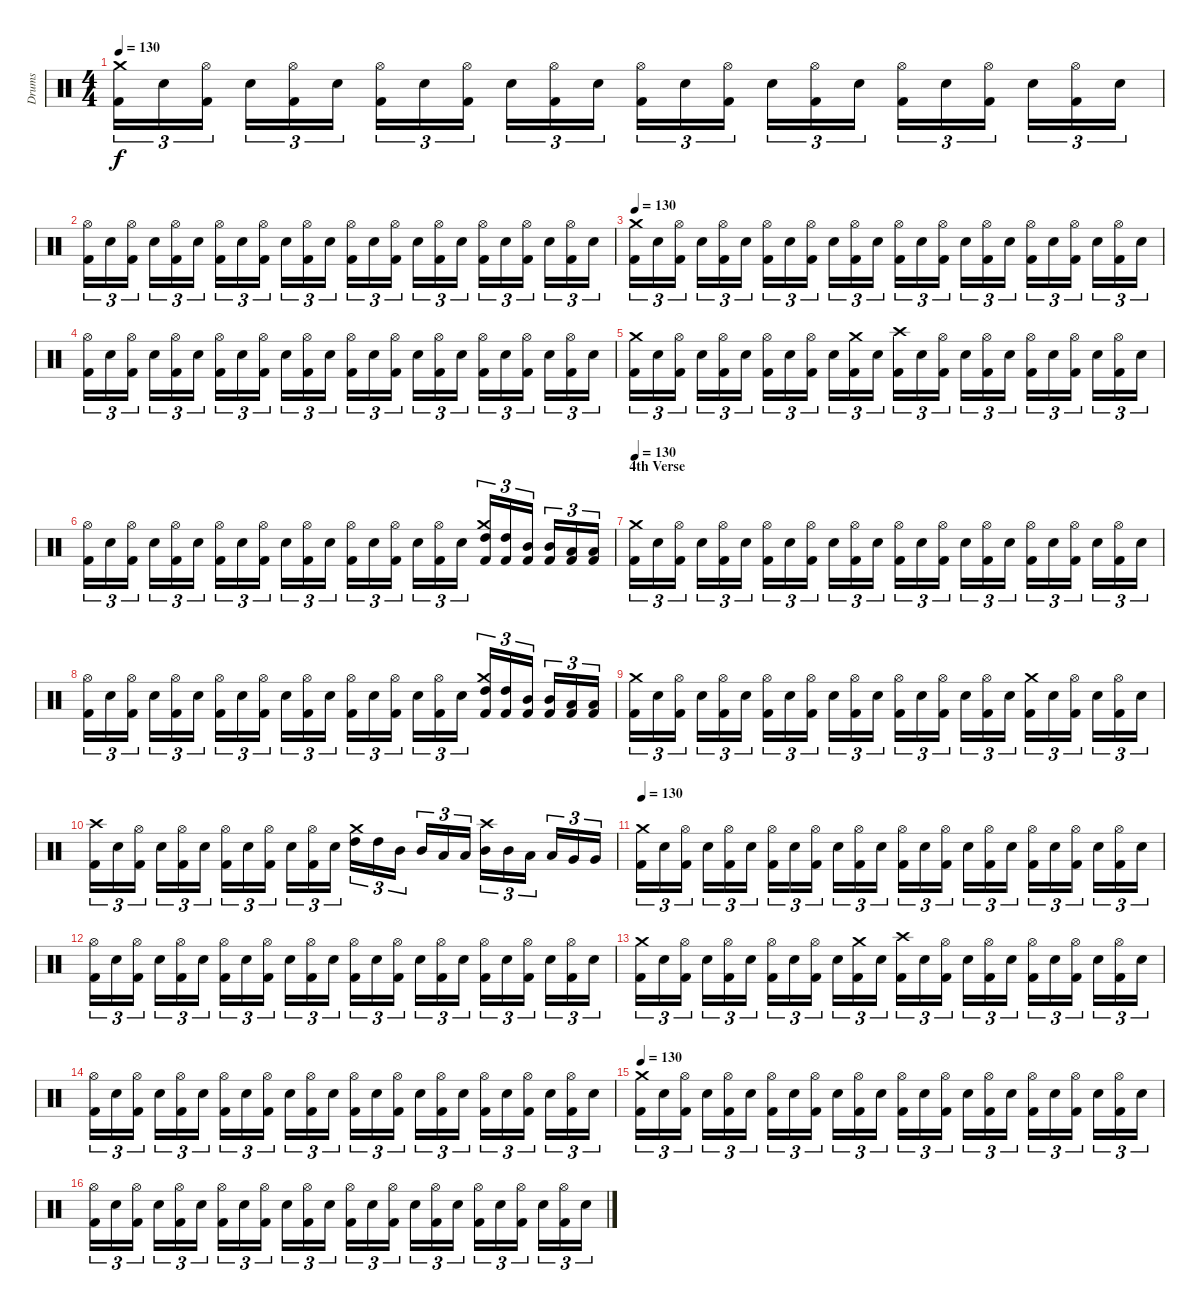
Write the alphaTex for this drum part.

\track ("Drums" "Drums") {instrument percussion}
\staff {score}
\articulation defaults
\ts (4 4)
\tempo 130
\clef neutral
\ks c
("Kick (hit) 2" "Crash medium (hit)").16{tu (3 2) dy f} "Electric Snare (hit)".16{tu (3 2)} ("Kick (hit) 2" "Hi-Hat (open)").16{tu (3 2)} "Electric Snare (hit)".16{tu (3 2)} ("Kick (hit) 2" "Hi-Hat (open)").16{tu (3 2)} "Electric Snare (hit)".16{tu (3 2)} ("Kick (hit) 2" "Hi-Hat (open)").16{tu (3 2)} "Electric Snare (hit)".16{tu (3 2)} ("Kick (hit) 2" "Hi-Hat (open)").16{tu (3 2)} "Electric Snare (hit)".16{tu (3 2)} ("Kick (hit) 2" "Hi-Hat (open)").16{tu (3 2)} "Electric Snare (hit)".16{tu (3 2)} ("Kick (hit) 2" "Hi-Hat (open)").16{tu (3 2)} "Electric Snare (hit)".16{tu (3 2)} ("Kick (hit) 2" "Hi-Hat (open)").16{tu (3 2)} "Electric Snare (hit)".16{tu (3 2)} ("Kick (hit) 2" "Hi-Hat (open)").16{tu (3 2)} "Electric Snare (hit)".16{tu (3 2)} ("Kick (hit) 2" "Hi-Hat (open)").16{tu (3 2)} "Electric Snare (hit)".16{tu (3 2)} ("Kick (hit) 2" "Hi-Hat (open)").16{tu (3 2)} "Electric Snare (hit)".16{tu (3 2)} ("Kick (hit) 2" "Hi-Hat (open)").16{tu (3 2)} "Electric Snare (hit)".16{tu (3 2)} |
("Kick (hit) 2" "Hi-Hat (open)").16{tu (3 2)} "Electric Snare (hit)".16{tu (3 2)} ("Kick (hit) 2" "Hi-Hat (open)").16{tu (3 2)} "Electric Snare (hit)".16{tu (3 2)} ("Kick (hit) 2" "Hi-Hat (open)").16{tu (3 2)} "Electric Snare (hit)".16{tu (3 2)} ("Kick (hit) 2" "Hi-Hat (open)").16{tu (3 2)} "Electric Snare (hit)".16{tu (3 2)} ("Kick (hit) 2" "Hi-Hat (open)").16{tu (3 2)} "Electric Snare (hit)".16{tu (3 2)} ("Kick (hit) 2" "Hi-Hat (open)").16{tu (3 2)} "Electric Snare (hit)".16{tu (3 2)} ("Kick (hit) 2" "Hi-Hat (open)").16{tu (3 2)} "Electric Snare (hit)".16{tu (3 2)} ("Kick (hit) 2" "Hi-Hat (open)").16{tu (3 2)} "Electric Snare (hit)".16{tu (3 2)} ("Kick (hit) 2" "Hi-Hat (open)").16{tu (3 2)} "Electric Snare (hit)".16{tu (3 2)} ("Kick (hit) 2" "Hi-Hat (open)").16{tu (3 2)} "Electric Snare (hit)".16{tu (3 2)} ("Kick (hit) 2" "Hi-Hat (open)").16{tu (3 2)} "Electric Snare (hit)".16{tu (3 2)} ("Kick (hit) 2" "Hi-Hat (open)").16{tu (3 2)} "Electric Snare (hit)".16{tu (3 2)} |
\tempo 130
("Kick (hit) 2" "Crash medium (hit)").16{tu (3 2)} "Electric Snare (hit)".16{tu (3 2)} ("Kick (hit) 2" "Hi-Hat (open)").16{tu (3 2)} "Electric Snare (hit)".16{tu (3 2)} ("Kick (hit) 2" "Hi-Hat (open)").16{tu (3 2)} "Electric Snare (hit)".16{tu (3 2)} ("Kick (hit) 2" "Hi-Hat (open)").16{tu (3 2)} "Electric Snare (hit)".16{tu (3 2)} ("Kick (hit) 2" "Hi-Hat (open)").16{tu (3 2)} "Electric Snare (hit)".16{tu (3 2)} ("Kick (hit) 2" "Hi-Hat (open)").16{tu (3 2)} "Electric Snare (hit)".16{tu (3 2)} ("Kick (hit) 2" "Hi-Hat (open)").16{tu (3 2)} "Electric Snare (hit)".16{tu (3 2)} ("Kick (hit) 2" "Hi-Hat (open)").16{tu (3 2)} "Electric Snare (hit)".16{tu (3 2)} ("Kick (hit) 2" "Hi-Hat (open)").16{tu (3 2)} "Electric Snare (hit)".16{tu (3 2)} ("Kick (hit) 2" "Hi-Hat (open)").16{tu (3 2)} "Electric Snare (hit)".16{tu (3 2)} ("Kick (hit) 2" "Hi-Hat (open)").16{tu (3 2)} "Electric Snare (hit)".16{tu (3 2)} ("Kick (hit) 2" "Hi-Hat (open)").16{tu (3 2)} "Electric Snare (hit)".16{tu (3 2)} |
("Kick (hit) 2" "Hi-Hat (open)").16{tu (3 2)} "Electric Snare (hit)".16{tu (3 2)} ("Kick (hit) 2" "Hi-Hat (open)").16{tu (3 2)} "Electric Snare (hit)".16{tu (3 2)} ("Kick (hit) 2" "Hi-Hat (open)").16{tu (3 2)} "Electric Snare (hit)".16{tu (3 2)} ("Kick (hit) 2" "Hi-Hat (open)").16{tu (3 2)} "Electric Snare (hit)".16{tu (3 2)} ("Kick (hit) 2" "Hi-Hat (open)").16{tu (3 2)} "Electric Snare (hit)".16{tu (3 2)} ("Kick (hit) 2" "Hi-Hat (open)").16{tu (3 2)} "Electric Snare (hit)".16{tu (3 2)} ("Kick (hit) 2" "Hi-Hat (open)").16{tu (3 2)} "Electric Snare (hit)".16{tu (3 2)} ("Kick (hit) 2" "Hi-Hat (open)").16{tu (3 2)} "Electric Snare (hit)".16{tu (3 2)} ("Kick (hit) 2" "Hi-Hat (open)").16{tu (3 2)} "Electric Snare (hit)".16{tu (3 2)} ("Kick (hit) 2" "Hi-Hat (open)").16{tu (3 2)} "Electric Snare (hit)".16{tu (3 2)} ("Kick (hit) 2" "Hi-Hat (open)").16{tu (3 2)} "Electric Snare (hit)".16{tu (3 2)} ("Kick (hit) 2" "Hi-Hat (open)").16{tu (3 2)} "Electric Snare (hit)".16{tu (3 2)} |
("Kick (hit) 2" "Crash medium (hit)").16{tu (3 2)} "Electric Snare (hit)".16{tu (3 2)} ("Kick (hit) 2" "Hi-Hat (open)").16{tu (3 2)} "Electric Snare (hit)".16{tu (3 2)} ("Kick (hit) 2" "Hi-Hat (open)").16{tu (3 2)} "Electric Snare (hit)".16{tu (3 2)} ("Kick (hit) 2" "Hi-Hat (open)").16{tu (3 2)} "Electric Snare (hit)".16{tu (3 2)} ("Kick (hit) 2" "Hi-Hat (open)").16{tu (3 2)} "Electric Snare (hit)".16{tu (3 2)} ("Kick (hit) 2" "Crash medium (hit)").16{tu (3 2)} "Electric Snare (hit)".16{tu (3 2)} ("Kick (hit) 2" "Crash high (hit)").16{tu (3 2)} "Electric Snare (hit)".16{tu (3 2)} ("Kick (hit) 2" "Hi-Hat (open)").16{tu (3 2)} "Electric Snare (hit)".16{tu (3 2)} ("Kick (hit) 2" "Hi-Hat (open)").16{tu (3 2)} "Electric Snare (hit)".16{tu (3 2)} ("Kick (hit) 2" "Hi-Hat (open)").16{tu (3 2)} "Electric Snare (hit)".16{tu (3 2)} ("Kick (hit) 2" "Hi-Hat (open)").16{tu (3 2)} "Electric Snare (hit)".16{tu (3 2)} ("Kick (hit) 2" "Hi-Hat (open)").16{tu (3 2)} "Electric Snare (hit)".16{tu (3 2)} |
("Kick (hit) 2" "Hi-Hat (open)").16{tu (3 2)} "Electric Snare (hit)".16{tu (3 2)} ("Kick (hit) 2" "Hi-Hat (open)").16{tu (3 2)} "Electric Snare (hit)".16{tu (3 2)} ("Kick (hit) 2" "Hi-Hat (open)").16{tu (3 2)} "Electric Snare (hit)".16{tu (3 2)} ("Kick (hit) 2" "Hi-Hat (open)").16{tu (3 2)} "Electric Snare (hit)".16{tu (3 2)} ("Kick (hit) 2" "Hi-Hat (open)").16{tu (3 2)} "Electric Snare (hit)".16{tu (3 2)} ("Kick (hit) 2" "Hi-Hat (open)").16{tu (3 2)} "Electric Snare (hit)".16{tu (3 2)} ("Kick (hit) 2" "Hi-Hat (open)").16{tu (3 2)} "Electric Snare (hit)".16{tu (3 2)} ("Kick (hit) 2" "Hi-Hat (open)").16{tu (3 2)} "Electric Snare (hit)".16{tu (3 2)} ("Kick (hit) 2" "Hi-Hat (open)").16{tu (3 2)} "Electric Snare (hit)".16{tu (3 2)} ("Kick (hit) 2" "High Tom (hit)" "Crash medium (hit)").16{tu (3 2)} ("Kick (hit) 2" "High Tom (hit)").16{tu (3 2)} ("Kick (hit) 2" "Mid Tom (hit)").16{tu (3 2)} ("Kick (hit) 2" "Mid Tom (hit)").16{tu (3 2)} ("Kick (hit) 2" "Low Tom (hit)").16{tu (3 2)} ("Kick (hit) 2" "Low Tom (hit)").16{tu (3 2)} |
\section ("" "4th Verse")
\tempo 130
("Kick (hit) 2" "Crash medium (hit)").16{tu (3 2)} "Electric Snare (hit)".16{tu (3 2)} ("Kick (hit) 2" "Hi-Hat (open)").16{tu (3 2)} "Electric Snare (hit)".16{tu (3 2)} ("Kick (hit) 2" "Hi-Hat (open)").16{tu (3 2)} "Electric Snare (hit)".16{tu (3 2)} ("Kick (hit) 2" "Hi-Hat (open)").16{tu (3 2)} "Electric Snare (hit)".16{tu (3 2)} ("Kick (hit) 2" "Hi-Hat (open)").16{tu (3 2)} "Electric Snare (hit)".16{tu (3 2)} ("Kick (hit) 2" "Hi-Hat (open)").16{tu (3 2)} "Electric Snare (hit)".16{tu (3 2)} ("Kick (hit) 2" "Hi-Hat (open)").16{tu (3 2)} "Electric Snare (hit)".16{tu (3 2)} ("Kick (hit) 2" "Hi-Hat (open)").16{tu (3 2)} "Electric Snare (hit)".16{tu (3 2)} ("Kick (hit) 2" "Hi-Hat (open)").16{tu (3 2)} "Electric Snare (hit)".16{tu (3 2)} ("Kick (hit) 2" "Hi-Hat (open)").16{tu (3 2)} "Electric Snare (hit)".16{tu (3 2)} ("Kick (hit) 2" "Hi-Hat (open)").16{tu (3 2)} "Electric Snare (hit)".16{tu (3 2)} ("Kick (hit) 2" "Hi-Hat (open)").16{tu (3 2)} "Electric Snare (hit)".16{tu (3 2)} |
("Kick (hit) 2" "Hi-Hat (open)").16{tu (3 2)} "Electric Snare (hit)".16{tu (3 2)} ("Kick (hit) 2" "Hi-Hat (open)").16{tu (3 2)} "Electric Snare (hit)".16{tu (3 2)} ("Kick (hit) 2" "Hi-Hat (open)").16{tu (3 2)} "Electric Snare (hit)".16{tu (3 2)} ("Kick (hit) 2" "Hi-Hat (open)").16{tu (3 2)} "Electric Snare (hit)".16{tu (3 2)} ("Kick (hit) 2" "Hi-Hat (open)").16{tu (3 2)} "Electric Snare (hit)".16{tu (3 2)} ("Kick (hit) 2" "Hi-Hat (open)").16{tu (3 2)} "Electric Snare (hit)".16{tu (3 2)} ("Kick (hit) 2" "Hi-Hat (open)").16{tu (3 2)} "Electric Snare (hit)".16{tu (3 2)} ("Kick (hit) 2" "Hi-Hat (open)").16{tu (3 2)} "Electric Snare (hit)".16{tu (3 2)} ("Kick (hit) 2" "Hi-Hat (open)").16{tu (3 2)} "Electric Snare (hit)".16{tu (3 2)} ("Kick (hit) 2" "High Tom (hit)" "Crash medium (hit)").16{tu (3 2)} ("Kick (hit) 2" "High Tom (hit)").16{tu (3 2)} ("Kick (hit) 2" "Mid Tom (hit)").16{tu (3 2)} ("Kick (hit) 2" "Mid Tom (hit)").16{tu (3 2)} ("Kick (hit) 2" "Low Tom (hit)").16{tu (3 2)} ("Kick (hit) 2" "Low Tom (hit)").16{tu (3 2)} |
("Kick (hit) 2" "Crash medium (hit)").16{tu (3 2)} "Electric Snare (hit)".16{tu (3 2)} ("Kick (hit) 2" "Hi-Hat (open)").16{tu (3 2)} "Electric Snare (hit)".16{tu (3 2)} ("Kick (hit) 2" "Hi-Hat (open)").16{tu (3 2)} "Electric Snare (hit)".16{tu (3 2)} ("Kick (hit) 2" "Hi-Hat (open)").16{tu (3 2)} "Electric Snare (hit)".16{tu (3 2)} ("Kick (hit) 2" "Hi-Hat (open)").16{tu (3 2)} "Electric Snare (hit)".16{tu (3 2)} ("Kick (hit) 2" "Hi-Hat (open)").16{tu (3 2)} "Electric Snare (hit)".16{tu (3 2)} ("Kick (hit) 2" "Hi-Hat (open)").16{tu (3 2)} "Electric Snare (hit)".16{tu (3 2)} ("Kick (hit) 2" "Hi-Hat (open)").16{tu (3 2)} "Electric Snare (hit)".16{tu (3 2)} ("Kick (hit) 2" "Hi-Hat (open)").16{tu (3 2)} "Electric Snare (hit)".16{tu (3 2)} ("Kick (hit) 2" "Crash medium (hit)").16{tu (3 2)} "Electric Snare (hit)".16{tu (3 2)} ("Kick (hit) 2" "Hi-Hat (open)").16{tu (3 2)} "Electric Snare (hit)".16{tu (3 2)} ("Kick (hit) 2" "Hi-Hat (open)").16{tu (3 2)} "Electric Snare (hit)".16{tu (3 2)} |
("Kick (hit) 2" "Crash high (hit)").16{tu (3 2)} "Electric Snare (hit)".16{tu (3 2)} ("Kick (hit) 2" "Hi-Hat (open)").16{tu (3 2)} "Electric Snare (hit)".16{tu (3 2)} ("Kick (hit) 2" "Hi-Hat (open)").16{tu (3 2)} "Electric Snare (hit)".16{tu (3 2)} ("Kick (hit) 2" "Hi-Hat (open)").16{tu (3 2)} "Electric Snare (hit)".16{tu (3 2)} ("Kick (hit) 2" "Hi-Hat (open)").16{tu (3 2)} "Electric Snare (hit)".16{tu (3 2)} ("Kick (hit) 2" "Hi-Hat (open)").16{tu (3 2)} "Electric Snare (hit)".16{tu (3 2)} ("High Tom (hit)" "Crash medium (hit)").16{tu (3 2)} "High Tom (hit)".16{tu (3 2)} "Mid Tom (hit)".16{tu (3 2)} "Mid Tom (hit)".16{tu (3 2)} "Low Tom (hit)".16{tu (3 2)} "Low Tom (hit)".16{tu (3 2)} ("Mid Tom (hit)" "Crash high (hit)").16{tu (3 2)} "Mid Tom (hit)".16{tu (3 2)} "Low Tom (hit)".16{tu (3 2)} "Low Tom (hit)".16{tu (3 2)} "Very Low Tom (hit)".16{tu (3 2)} "Very Low Tom (hit)".16{tu (3 2)} |
\tempo 130
("Kick (hit) 2" "Crash medium (hit)").16{tu (3 2)} "Electric Snare (hit)".16{tu (3 2)} ("Kick (hit) 2" "Hi-Hat (open)").16{tu (3 2)} "Electric Snare (hit)".16{tu (3 2)} ("Kick (hit) 2" "Hi-Hat (open)").16{tu (3 2)} "Electric Snare (hit)".16{tu (3 2)} ("Kick (hit) 2" "Hi-Hat (open)").16{tu (3 2)} "Electric Snare (hit)".16{tu (3 2)} ("Kick (hit) 2" "Hi-Hat (open)").16{tu (3 2)} "Electric Snare (hit)".16{tu (3 2)} ("Kick (hit) 2" "Hi-Hat (open)").16{tu (3 2)} "Electric Snare (hit)".16{tu (3 2)} ("Kick (hit) 2" "Hi-Hat (open)").16{tu (3 2)} "Electric Snare (hit)".16{tu (3 2)} ("Kick (hit) 2" "Hi-Hat (open)").16{tu (3 2)} "Electric Snare (hit)".16{tu (3 2)} ("Kick (hit) 2" "Hi-Hat (open)").16{tu (3 2)} "Electric Snare (hit)".16{tu (3 2)} ("Kick (hit) 2" "Hi-Hat (open)").16{tu (3 2)} "Electric Snare (hit)".16{tu (3 2)} ("Kick (hit) 2" "Hi-Hat (open)").16{tu (3 2)} "Electric Snare (hit)".16{tu (3 2)} ("Kick (hit) 2" "Hi-Hat (open)").16{tu (3 2)} "Electric Snare (hit)".16{tu (3 2)} |
("Kick (hit) 2" "Hi-Hat (open)").16{tu (3 2)} "Electric Snare (hit)".16{tu (3 2)} ("Kick (hit) 2" "Hi-Hat (open)").16{tu (3 2)} "Electric Snare (hit)".16{tu (3 2)} ("Kick (hit) 2" "Hi-Hat (open)").16{tu (3 2)} "Electric Snare (hit)".16{tu (3 2)} ("Kick (hit) 2" "Hi-Hat (open)").16{tu (3 2)} "Electric Snare (hit)".16{tu (3 2)} ("Kick (hit) 2" "Hi-Hat (open)").16{tu (3 2)} "Electric Snare (hit)".16{tu (3 2)} ("Kick (hit) 2" "Hi-Hat (open)").16{tu (3 2)} "Electric Snare (hit)".16{tu (3 2)} ("Kick (hit) 2" "Hi-Hat (open)").16{tu (3 2)} "Electric Snare (hit)".16{tu (3 2)} ("Kick (hit) 2" "Hi-Hat (open)").16{tu (3 2)} "Electric Snare (hit)".16{tu (3 2)} ("Kick (hit) 2" "Hi-Hat (open)").16{tu (3 2)} "Electric Snare (hit)".16{tu (3 2)} ("Kick (hit) 2" "Hi-Hat (open)").16{tu (3 2)} "Electric Snare (hit)".16{tu (3 2)} ("Kick (hit) 2" "Hi-Hat (open)").16{tu (3 2)} "Electric Snare (hit)".16{tu (3 2)} ("Kick (hit) 2" "Hi-Hat (open)").16{tu (3 2)} "Electric Snare (hit)".16{tu (3 2)} |
("Kick (hit) 2" "Crash medium (hit)").16{tu (3 2)} "Electric Snare (hit)".16{tu (3 2)} ("Kick (hit) 2" "Hi-Hat (open)").16{tu (3 2)} "Electric Snare (hit)".16{tu (3 2)} ("Kick (hit) 2" "Hi-Hat (open)").16{tu (3 2)} "Electric Snare (hit)".16{tu (3 2)} ("Kick (hit) 2" "Hi-Hat (open)").16{tu (3 2)} "Electric Snare (hit)".16{tu (3 2)} ("Kick (hit) 2" "Hi-Hat (open)").16{tu (3 2)} "Electric Snare (hit)".16{tu (3 2)} ("Kick (hit) 2" "Crash medium (hit)").16{tu (3 2)} "Electric Snare (hit)".16{tu (3 2)} ("Kick (hit) 2" "Crash high (hit)").16{tu (3 2)} "Electric Snare (hit)".16{tu (3 2)} ("Kick (hit) 2" "Hi-Hat (open)").16{tu (3 2)} "Electric Snare (hit)".16{tu (3 2)} ("Kick (hit) 2" "Hi-Hat (open)").16{tu (3 2)} "Electric Snare (hit)".16{tu (3 2)} ("Kick (hit) 2" "Hi-Hat (open)").16{tu (3 2)} "Electric Snare (hit)".16{tu (3 2)} ("Kick (hit) 2" "Hi-Hat (open)").16{tu (3 2)} "Electric Snare (hit)".16{tu (3 2)} ("Kick (hit) 2" "Hi-Hat (open)").16{tu (3 2)} "Electric Snare (hit)".16{tu (3 2)} |
("Kick (hit) 2" "Hi-Hat (open)").16{tu (3 2)} "Electric Snare (hit)".16{tu (3 2)} ("Kick (hit) 2" "Hi-Hat (open)").16{tu (3 2)} "Electric Snare (hit)".16{tu (3 2)} ("Kick (hit) 2" "Hi-Hat (open)").16{tu (3 2)} "Electric Snare (hit)".16{tu (3 2)} ("Kick (hit) 2" "Hi-Hat (open)").16{tu (3 2)} "Electric Snare (hit)".16{tu (3 2)} ("Kick (hit) 2" "Hi-Hat (open)").16{tu (3 2)} "Electric Snare (hit)".16{tu (3 2)} ("Kick (hit) 2" "Hi-Hat (open)").16{tu (3 2)} "Electric Snare (hit)".16{tu (3 2)} ("Kick (hit) 2" "Hi-Hat (open)").16{tu (3 2)} "Electric Snare (hit)".16{tu (3 2)} ("Kick (hit) 2" "Hi-Hat (open)").16{tu (3 2)} "Electric Snare (hit)".16{tu (3 2)} ("Kick (hit) 2" "Hi-Hat (open)").16{tu (3 2)} "Electric Snare (hit)".16{tu (3 2)} ("Kick (hit) 2" "Hi-Hat (open)").16{tu (3 2)} "Electric Snare (hit)".16{tu (3 2)} ("Kick (hit) 2" "Hi-Hat (open)").16{tu (3 2)} "Electric Snare (hit)".16{tu (3 2)} ("Kick (hit) 2" "Hi-Hat (open)").16{tu (3 2)} "Electric Snare (hit)".16{tu (3 2)} |
\tempo 130
("Kick (hit) 2" "Crash medium (hit)").16{tu (3 2)} "Electric Snare (hit)".16{tu (3 2)} ("Kick (hit) 2" "Hi-Hat (open)").16{tu (3 2)} "Electric Snare (hit)".16{tu (3 2)} ("Kick (hit) 2" "Hi-Hat (open)").16{tu (3 2)} "Electric Snare (hit)".16{tu (3 2)} ("Kick (hit) 2" "Hi-Hat (open)").16{tu (3 2)} "Electric Snare (hit)".16{tu (3 2)} ("Kick (hit) 2" "Hi-Hat (open)").16{tu (3 2)} "Electric Snare (hit)".16{tu (3 2)} ("Kick (hit) 2" "Hi-Hat (open)").16{tu (3 2)} "Electric Snare (hit)".16{tu (3 2)} ("Kick (hit) 2" "Hi-Hat (open)").16{tu (3 2)} "Electric Snare (hit)".16{tu (3 2)} ("Kick (hit) 2" "Hi-Hat (open)").16{tu (3 2)} "Electric Snare (hit)".16{tu (3 2)} ("Kick (hit) 2" "Hi-Hat (open)").16{tu (3 2)} "Electric Snare (hit)".16{tu (3 2)} ("Kick (hit) 2" "Hi-Hat (open)").16{tu (3 2)} "Electric Snare (hit)".16{tu (3 2)} ("Kick (hit) 2" "Hi-Hat (open)").16{tu (3 2)} "Electric Snare (hit)".16{tu (3 2)} ("Kick (hit) 2" "Hi-Hat (open)").16{tu (3 2)} "Electric Snare (hit)".16{tu (3 2)} |
("Kick (hit) 2" "Hi-Hat (open)").16{tu (3 2)} "Electric Snare (hit)".16{tu (3 2)} ("Kick (hit) 2" "Hi-Hat (open)").16{tu (3 2)} "Electric Snare (hit)".16{tu (3 2)} ("Kick (hit) 2" "Hi-Hat (open)").16{tu (3 2)} "Electric Snare (hit)".16{tu (3 2)} ("Kick (hit) 2" "Hi-Hat (open)").16{tu (3 2)} "Electric Snare (hit)".16{tu (3 2)} ("Kick (hit) 2" "Hi-Hat (open)").16{tu (3 2)} "Electric Snare (hit)".16{tu (3 2)} ("Kick (hit) 2" "Hi-Hat (open)").16{tu (3 2)} "Electric Snare (hit)".16{tu (3 2)} ("Kick (hit) 2" "Hi-Hat (open)").16{tu (3 2)} "Electric Snare (hit)".16{tu (3 2)} ("Kick (hit) 2" "Hi-Hat (open)").16{tu (3 2)} "Electric Snare (hit)".16{tu (3 2)} ("Kick (hit) 2" "Hi-Hat (open)").16{tu (3 2)} "Electric Snare (hit)".16{tu (3 2)} ("Kick (hit) 2" "Hi-Hat (open)").16{tu (3 2)} "Electric Snare (hit)".16{tu (3 2)} ("Kick (hit) 2" "Hi-Hat (open)").16{tu (3 2)} "Electric Snare (hit)".16{tu (3 2)} ("Kick (hit) 2" "Hi-Hat (open)").16{tu (3 2)} "Electric Snare (hit)".16{tu (3 2)}
